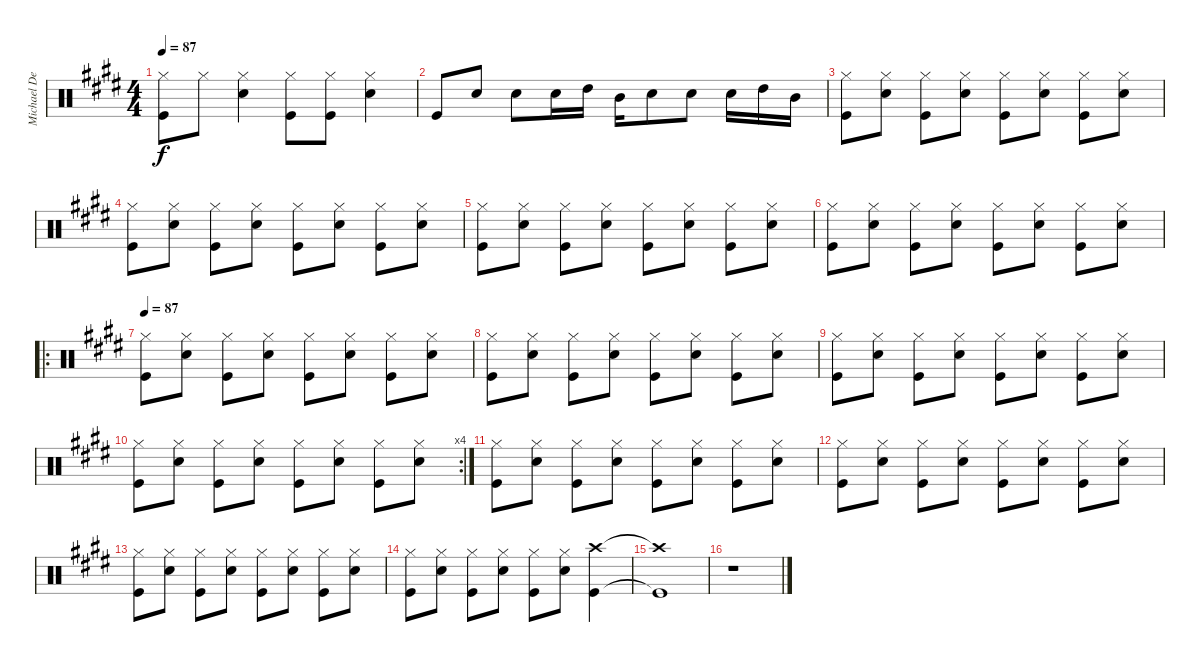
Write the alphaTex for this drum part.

\track ("Michael Derosier Drums" "Michael De") {instrument percussion}
\staff {score}
\articulation defaults
\ts (4 4)
\tempo 87
\clef neutral
\ks e
("Hi-Hat (closed)" "Kick (hit)").8{dy f} "Hi-Hat (closed)".8 ("Hi-Hat (closed)" "Snare (hit) 2").4 ("Hi-Hat (closed)" "Kick (hit)").8 ("Hi-Hat (closed)" "Kick (hit)").8 ("Hi-Hat (closed)" "Snare (hit) 2").4 |
"Kick (hit)".8 "Snare (hit) 2".8 "Snare (hit) 2".8 "Snare (hit) 2".16 "High Tom (hit)".16 "Mid Tom (hit)".16 "Snare (hit) 2".8 "Snare (hit) 2".8 "Snare (hit) 2".16 "High Tom (hit)".16 "Mid Tom (hit)".16 |
("Hi-Hat (closed)" "Kick (hit)").8 ("Hi-Hat (closed)" "Snare (hit) 2").8 ("Hi-Hat (closed)" "Kick (hit)").8 ("Hi-Hat (closed)" "Snare (hit) 2").8 ("Hi-Hat (closed)" "Kick (hit)").8 ("Hi-Hat (closed)" "Snare (hit) 2").8 ("Hi-Hat (closed)" "Kick (hit)").8 ("Hi-Hat (closed)" "Snare (hit) 2").8 |
("Hi-Hat (closed)" "Kick (hit)").8 ("Hi-Hat (closed)" "Snare (hit) 2").8 ("Hi-Hat (closed)" "Kick (hit)").8 ("Hi-Hat (closed)" "Snare (hit) 2").8 ("Hi-Hat (closed)" "Kick (hit)").8 ("Hi-Hat (closed)" "Snare (hit) 2").8 ("Hi-Hat (closed)" "Kick (hit)").8 ("Hi-Hat (closed)" "Snare (hit) 2").8 |
("Hi-Hat (closed)" "Kick (hit)").8 ("Hi-Hat (closed)" "Snare (hit) 2").8 ("Hi-Hat (closed)" "Kick (hit)").8 ("Hi-Hat (closed)" "Snare (hit) 2").8 ("Hi-Hat (closed)" "Kick (hit)").8 ("Hi-Hat (closed)" "Snare (hit) 2").8 ("Hi-Hat (closed)" "Kick (hit)").8 ("Hi-Hat (closed)" "Snare (hit) 2").8 |
("Hi-Hat (closed)" "Kick (hit)").8 ("Hi-Hat (closed)" "Snare (hit) 2").8 ("Hi-Hat (closed)" "Kick (hit)").8 ("Hi-Hat (closed)" "Snare (hit) 2").8 ("Hi-Hat (closed)" "Kick (hit)").8 ("Hi-Hat (closed)" "Snare (hit) 2").8 ("Hi-Hat (closed)" "Kick (hit)").8 ("Hi-Hat (closed)" "Snare (hit) 2").8 |
\ro
\tempo 87
("Hi-Hat (closed)" "Kick (hit)").8 ("Hi-Hat (closed)" "Snare (hit) 2").8 ("Hi-Hat (closed)" "Kick (hit)").8 ("Hi-Hat (closed)" "Snare (hit) 2").8 ("Hi-Hat (closed)" "Kick (hit)").8 ("Hi-Hat (closed)" "Snare (hit) 2").8 ("Hi-Hat (closed)" "Kick (hit)").8 ("Hi-Hat (closed)" "Snare (hit) 2").8 |
("Hi-Hat (closed)" "Kick (hit)").8 ("Hi-Hat (closed)" "Snare (hit) 2").8 ("Hi-Hat (closed)" "Kick (hit)").8 ("Hi-Hat (closed)" "Snare (hit) 2").8 ("Hi-Hat (closed)" "Kick (hit)").8 ("Hi-Hat (closed)" "Snare (hit) 2").8 ("Hi-Hat (closed)" "Kick (hit)").8 ("Hi-Hat (closed)" "Snare (hit) 2").8 |
("Hi-Hat (closed)" "Kick (hit)").8 ("Hi-Hat (closed)" "Snare (hit) 2").8 ("Hi-Hat (closed)" "Kick (hit)").8 ("Hi-Hat (closed)" "Snare (hit) 2").8 ("Hi-Hat (closed)" "Kick (hit)").8 ("Hi-Hat (closed)" "Snare (hit) 2").8 ("Hi-Hat (closed)" "Kick (hit)").8 ("Hi-Hat (closed)" "Snare (hit) 2").8 |
\rc 4
("Hi-Hat (closed)" "Kick (hit)").8 ("Hi-Hat (closed)" "Snare (hit) 2").8 ("Hi-Hat (closed)" "Kick (hit)").8 ("Hi-Hat (closed)" "Snare (hit) 2").8 ("Hi-Hat (closed)" "Kick (hit)").8 ("Hi-Hat (closed)" "Snare (hit) 2").8 ("Hi-Hat (closed)" "Kick (hit)").8 ("Hi-Hat (closed)" "Snare (hit) 2").8 |
("Hi-Hat (closed)" "Kick (hit)").8 ("Hi-Hat (closed)" "Snare (hit) 2").8 ("Hi-Hat (closed)" "Kick (hit)").8 ("Hi-Hat (closed)" "Snare (hit) 2").8 ("Hi-Hat (closed)" "Kick (hit)").8 ("Hi-Hat (closed)" "Snare (hit) 2").8 ("Hi-Hat (closed)" "Kick (hit)").8 ("Hi-Hat (closed)" "Snare (hit) 2").8 |
("Hi-Hat (closed)" "Kick (hit)").8 ("Hi-Hat (closed)" "Snare (hit) 2").8 ("Hi-Hat (closed)" "Kick (hit)").8 ("Hi-Hat (closed)" "Snare (hit) 2").8 ("Hi-Hat (closed)" "Kick (hit)").8 ("Hi-Hat (closed)" "Snare (hit) 2").8 ("Hi-Hat (closed)" "Kick (hit)").8 ("Hi-Hat (closed)" "Snare (hit) 2").8 |
("Hi-Hat (closed)" "Kick (hit)").8 ("Hi-Hat (closed)" "Snare (hit) 2").8 ("Hi-Hat (closed)" "Kick (hit)").8 ("Hi-Hat (closed)" "Snare (hit) 2").8 ("Hi-Hat (closed)" "Kick (hit)").8 ("Hi-Hat (closed)" "Snare (hit) 2").8 ("Hi-Hat (closed)" "Kick (hit)").8 ("Hi-Hat (closed)" "Snare (hit) 2").8 |
("Hi-Hat (closed)" "Kick (hit)").8 ("Hi-Hat (closed)" "Snare (hit) 2").8 ("Hi-Hat (closed)" "Kick (hit)").8 ("Hi-Hat (closed)" "Snare (hit) 2").8 ("Hi-Hat (closed)" "Kick (hit)").8 ("Hi-Hat (closed)" "Snare (hit) 2").8 ("Crash high (hit)" "Kick (hit)").4 |
("Crash high (hit)"{t} "Kick (hit)"{t}).1 |
r.1
